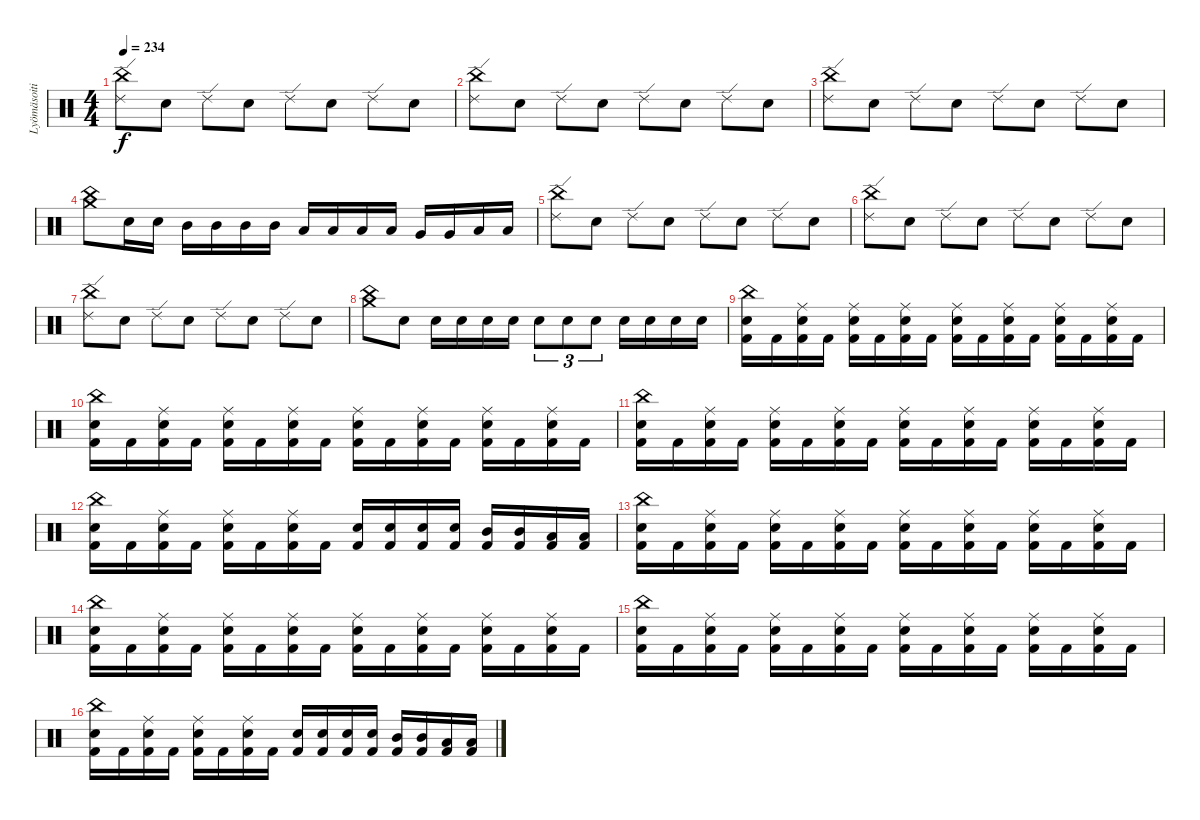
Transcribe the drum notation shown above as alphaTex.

\track ("Lyömäsoitin" "Lyömäsoiti") {instrument percussion}
\staff {score}
\articulation defaults
\ts (4 4)
\tempo 234
\clef neutral
\ks c
("Ride (edge) 2" "China (hit)").8{dy f} "Electric Snare (hit)".8 "Ride (edge) 2".8 "Electric Snare (hit)".8 "Ride (edge) 2".8 "Electric Snare (hit)".8 "Ride (edge) 2".8 "Electric Snare (hit)".8 |
("Ride (edge) 2" "China (hit)").8 "Electric Snare (hit)".8 "Ride (edge) 2".8 "Electric Snare (hit)".8 "Ride (edge) 2".8 "Electric Snare (hit)".8 "Ride (edge) 2".8 "Electric Snare (hit)".8 |
("Ride (edge) 2" "China (hit)").8 "Electric Snare (hit)".8 "Ride (edge) 2".8 "Electric Snare (hit)".8 "Ride (edge) 2".8 "Electric Snare (hit)".8 "Ride (edge) 2".8 "Electric Snare (hit)".8 |
("Crash medium (hit)" "China (hit)").8 "Electric Snare (hit)".16 "Electric Snare (hit)".16 "Mid Tom (hit)".16 "Mid Tom (hit)".16 "Mid Tom (hit)".16 "Mid Tom (hit)".16 "Low Tom (hit)".16 "Low Tom (hit)".16 "Low Tom (hit)".16 "Low Tom (hit)".16 "Very Low Tom (hit)".16 "Very Low Tom (hit)".16 "Low Floor Tom (hit)".16 "Low Floor Tom (hit)".16 |
("Ride (edge) 2" "China (hit)").8 "Electric Snare (hit)".8 "Ride (edge) 2".8 "Electric Snare (hit)".8 "Ride (edge) 2".8 "Electric Snare (hit)".8 "Ride (edge) 2".8 "Electric Snare (hit)".8 |
("Ride (edge) 2" "China (hit)").8 "Electric Snare (hit)".8 "Ride (edge) 2".8 "Electric Snare (hit)".8 "Ride (edge) 2".8 "Electric Snare (hit)".8 "Ride (edge) 2".8 "Electric Snare (hit)".8 |
("Ride (edge) 2" "China (hit)").8 "Electric Snare (hit)".8 "Ride (edge) 2".8 "Electric Snare (hit)".8 "Ride (edge) 2".8 "Electric Snare (hit)".8 "Ride (edge) 2".8 "Electric Snare (hit)".8 |
("Crash medium (hit)" "China (hit)").8 "Electric Snare (hit)".8 "Electric Snare (hit)".16 "Electric Snare (hit)".16 "Electric Snare (hit)".16 "Electric Snare (hit)".16 "Electric Snare (hit)".8{tu (3 2)} "Electric Snare (hit)".8{tu (3 2)} "Electric Snare (hit)".8{tu (3 2)} "Electric Snare (hit)".16 "Electric Snare (hit)".16 "Electric Snare (hit)".16 "Electric Snare (hit)".16 |
("China (hit)" "Electric Snare (hit)" "Kick (hit) 2").16 "Kick (hit) 2".16 ("Ride (middle)" "Electric Snare (hit)" "Kick (hit) 2").16 "Kick (hit) 2".16 ("Ride (middle)" "Electric Snare (hit)" "Kick (hit) 2").16 "Kick (hit) 2".16 ("Ride (middle)" "Electric Snare (hit)" "Kick (hit) 2").16 "Kick (hit) 2".16 ("Ride (middle)" "Electric Snare (hit)" "Kick (hit) 2").16 "Kick (hit) 2".16 ("Ride (middle)" "Electric Snare (hit)" "Kick (hit) 2").16 "Kick (hit) 2".16 ("Ride (middle)" "Electric Snare (hit)" "Kick (hit) 2").16 "Kick (hit) 2".16 ("Ride (middle)" "Electric Snare (hit)" "Kick (hit) 2").16 "Kick (hit) 2".16 |
("China (hit)" "Electric Snare (hit)" "Kick (hit) 2").16 "Kick (hit) 2".16 ("Ride (middle)" "Electric Snare (hit)" "Kick (hit) 2").16 "Kick (hit) 2".16 ("Ride (middle)" "Electric Snare (hit)" "Kick (hit) 2").16 "Kick (hit) 2".16 ("Ride (middle)" "Electric Snare (hit)" "Kick (hit) 2").16 "Kick (hit) 2".16 ("Ride (middle)" "Electric Snare (hit)" "Kick (hit) 2").16 "Kick (hit) 2".16 ("Ride (middle)" "Electric Snare (hit)" "Kick (hit) 2").16 "Kick (hit) 2".16 ("Ride (middle)" "Electric Snare (hit)" "Kick (hit) 2").16 "Kick (hit) 2".16 ("Ride (middle)" "Electric Snare (hit)" "Kick (hit) 2").16 "Kick (hit) 2".16 |
("China (hit)" "Electric Snare (hit)" "Kick (hit) 2").16 "Kick (hit) 2".16 ("Ride (middle)" "Electric Snare (hit)" "Kick (hit) 2").16 "Kick (hit) 2".16 ("Ride (middle)" "Electric Snare (hit)" "Kick (hit) 2").16 "Kick (hit) 2".16 ("Ride (middle)" "Electric Snare (hit)" "Kick (hit) 2").16 "Kick (hit) 2".16 ("Ride (middle)" "Electric Snare (hit)" "Kick (hit) 2").16 "Kick (hit) 2".16 ("Ride (middle)" "Electric Snare (hit)" "Kick (hit) 2").16 "Kick (hit) 2".16 ("Ride (middle)" "Electric Snare (hit)" "Kick (hit) 2").16 "Kick (hit) 2".16 ("Ride (middle)" "Electric Snare (hit)" "Kick (hit) 2").16 "Kick (hit) 2".16 |
("China (hit)" "Electric Snare (hit)" "Kick (hit) 2").16 "Kick (hit) 2".16 ("Ride (middle)" "Electric Snare (hit)" "Kick (hit) 2").16 "Kick (hit) 2".16 ("Ride (middle)" "Electric Snare (hit)" "Kick (hit) 2").16 "Kick (hit) 2".16 ("Ride (middle)" "Electric Snare (hit)" "Kick (hit) 2").16 "Kick (hit) 2".16 ("Electric Snare (hit)" "Kick (hit) 2").16 ("Electric Snare (hit)" "Kick (hit) 2").16 ("Electric Snare (hit)" "Kick (hit) 2").16 ("Electric Snare (hit)" "Kick (hit) 2").16 ("Mid Tom (hit)" "Kick (hit) 2").16 ("Mid Tom (hit)" "Kick (hit) 2").16 ("Low Tom (hit)" "Kick (hit) 2").16 ("Low Tom (hit)" "Kick (hit) 2").16 |
("China (hit)" "Electric Snare (hit)" "Kick (hit) 2").16 "Kick (hit) 2".16 ("Ride (middle)" "Electric Snare (hit)" "Kick (hit) 2").16 "Kick (hit) 2".16 ("Ride (middle)" "Electric Snare (hit)" "Kick (hit) 2").16 "Kick (hit) 2".16 ("Ride (middle)" "Electric Snare (hit)" "Kick (hit) 2").16 "Kick (hit) 2".16 ("Ride (middle)" "Electric Snare (hit)" "Kick (hit) 2").16 "Kick (hit) 2".16 ("Ride (middle)" "Electric Snare (hit)" "Kick (hit) 2").16 "Kick (hit) 2".16 ("Ride (middle)" "Electric Snare (hit)" "Kick (hit) 2").16 "Kick (hit) 2".16 ("Ride (middle)" "Electric Snare (hit)" "Kick (hit) 2").16 "Kick (hit) 2".16 |
("China (hit)" "Electric Snare (hit)" "Kick (hit) 2").16 "Kick (hit) 2".16 ("Ride (middle)" "Electric Snare (hit)" "Kick (hit) 2").16 "Kick (hit) 2".16 ("Ride (middle)" "Electric Snare (hit)" "Kick (hit) 2").16 "Kick (hit) 2".16 ("Ride (middle)" "Electric Snare (hit)" "Kick (hit) 2").16 "Kick (hit) 2".16 ("Ride (middle)" "Electric Snare (hit)" "Kick (hit) 2").16 "Kick (hit) 2".16 ("Ride (middle)" "Electric Snare (hit)" "Kick (hit) 2").16 "Kick (hit) 2".16 ("Ride (middle)" "Electric Snare (hit)" "Kick (hit) 2").16 "Kick (hit) 2".16 ("Ride (middle)" "Electric Snare (hit)" "Kick (hit) 2").16 "Kick (hit) 2".16 |
("China (hit)" "Electric Snare (hit)" "Kick (hit) 2").16 "Kick (hit) 2".16 ("Ride (middle)" "Electric Snare (hit)" "Kick (hit) 2").16 "Kick (hit) 2".16 ("Ride (middle)" "Electric Snare (hit)" "Kick (hit) 2").16 "Kick (hit) 2".16 ("Ride (middle)" "Electric Snare (hit)" "Kick (hit) 2").16 "Kick (hit) 2".16 ("Ride (middle)" "Electric Snare (hit)" "Kick (hit) 2").16 "Kick (hit) 2".16 ("Ride (middle)" "Electric Snare (hit)" "Kick (hit) 2").16 "Kick (hit) 2".16 ("Ride (middle)" "Electric Snare (hit)" "Kick (hit) 2").16 "Kick (hit) 2".16 ("Ride (middle)" "Electric Snare (hit)" "Kick (hit) 2").16 "Kick (hit) 2".16 |
("China (hit)" "Electric Snare (hit)" "Kick (hit) 2").16 "Kick (hit) 2".16 ("Ride (middle)" "Electric Snare (hit)" "Kick (hit) 2").16 "Kick (hit) 2".16 ("Ride (middle)" "Electric Snare (hit)" "Kick (hit) 2").16 "Kick (hit) 2".16 ("Ride (middle)" "Electric Snare (hit)" "Kick (hit) 2").16 "Kick (hit) 2".16 ("Electric Snare (hit)" "Kick (hit) 2").16 ("Electric Snare (hit)" "Kick (hit) 2").16 ("Electric Snare (hit)" "Kick (hit) 2").16 ("Electric Snare (hit)" "Kick (hit) 2").16 ("Mid Tom (hit)" "Kick (hit) 2").16 ("Mid Tom (hit)" "Kick (hit) 2").16 ("Low Tom (hit)" "Kick (hit) 2").16 ("Low Tom (hit)" "Kick (hit) 2").16
